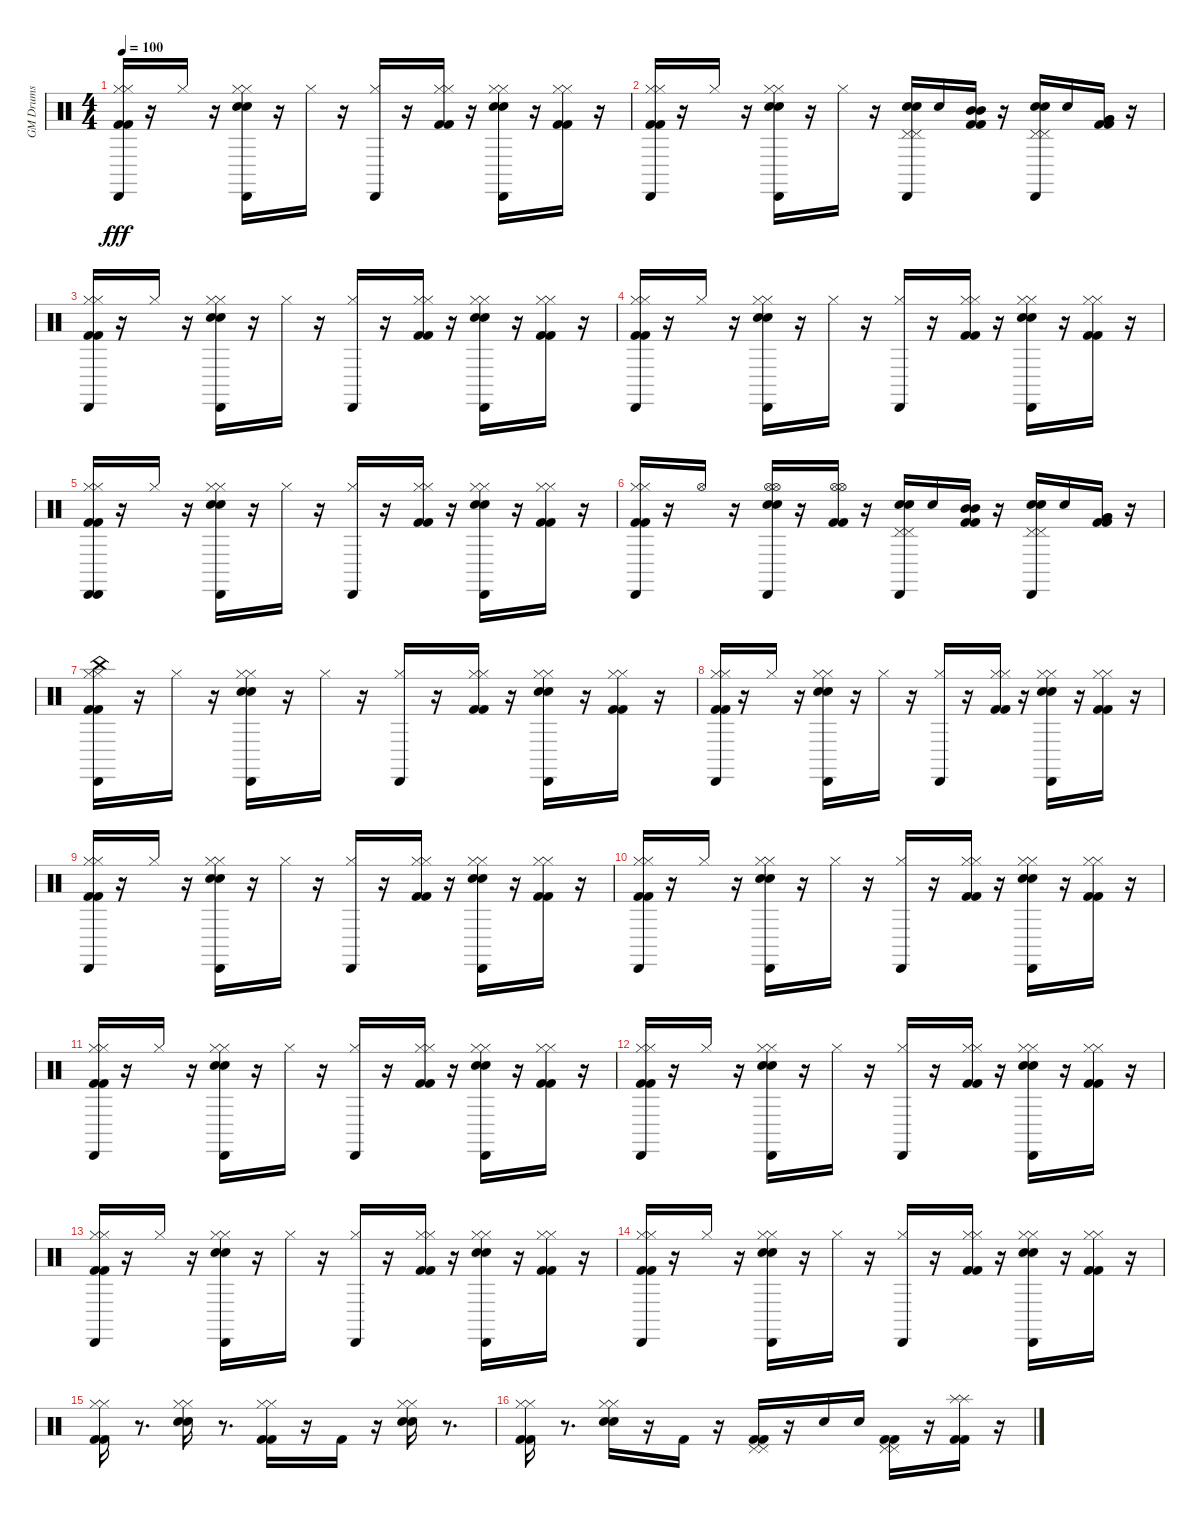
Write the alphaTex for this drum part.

\track ("GM Drums" "GM Drums") {instrument percussion}
\staff {score}
\articulation defaults
\ts (4 4)
\tempo 100
\clef neutral
\ks c
("Kick (hit) 2" "Kick (hit) 2" "Hi-Hat (closed)" "Hi-Hat (closed)" "Cabasa (hit)").16{dy fff} r.16 "Hi-Hat (closed)".16 r.16 ("Snare (hit) 2" "Snare (hit) 2" "Hi-Hat (closed)" "Hi-Hat (closed)" "Cabasa (hit)").16 r.16 "Hi-Hat (closed)".16 r.16 ("Hi-Hat (closed)" "Cabasa (hit)").16 r.16 ("Kick (hit) 2" "Kick (hit) 2" "Hi-Hat (closed)" "Hi-Hat (closed)").16 r.16 ("Snare (hit) 2" "Snare (hit) 2" "Hi-Hat (closed)" "Hi-Hat (closed)" "Cabasa (hit)").16 r.16 ("Kick (hit) 2" "Kick (hit) 2" "Hi-Hat (closed)" "Hi-Hat (closed)").16 r.16 |
("Kick (hit) 2" "Kick (hit) 2" "Hi-Hat (closed)" "Hi-Hat (closed)" "Cabasa (hit)").16 r.16 "Hi-Hat (closed)".16 r.16 ("Snare (hit) 2" "Snare (hit) 2" "Hi-Hat (closed)" "Hi-Hat (closed)" "Cabasa (hit)").16 r.16 "Hi-Hat (closed)".16 r.16 ("Snare (hit) 2" "Snare (hit) 2" "Pedal Hi-Hat (hit)" "Pedal Hi-Hat (hit)" "Cabasa (hit)").16 "Snare (hit) 2".16 ("Kick (hit) 2" "Kick (hit) 2" "Mid Tom (hit)" "Mid Tom (hit)").16 r.16 ("Snare (hit) 2" "Snare (hit) 2" "Pedal Hi-Hat (hit)" "Pedal Hi-Hat (hit)" "Cabasa (hit)").16 "Snare (hit) 2".16 ("Kick (hit) 2" "Kick (hit) 2" "Very Low Tom (hit)" "Very Low Tom (hit)").16 r.16 |
("Kick (hit) 2" "Kick (hit) 2" "Hi-Hat (closed)" "Hi-Hat (closed)" "Cabasa (hit)").16 r.16 "Hi-Hat (closed)".16 r.16 ("Snare (hit) 2" "Snare (hit) 2" "Hi-Hat (closed)" "Hi-Hat (closed)" "Cabasa (hit)").16 r.16 "Hi-Hat (closed)".16 r.16 ("Hi-Hat (closed)" "Cabasa (hit)").16 r.16 ("Kick (hit) 2" "Kick (hit) 2" "Hi-Hat (closed)" "Hi-Hat (closed)").16 r.16 ("Snare (hit) 2" "Snare (hit) 2" "Hi-Hat (closed)" "Hi-Hat (closed)" "Cabasa (hit)").16 r.16 ("Kick (hit) 2" "Kick (hit) 2" "Hi-Hat (closed)" "Hi-Hat (closed)").16 r.16 |
("Kick (hit) 2" "Kick (hit) 2" "Hi-Hat (closed)" "Hi-Hat (closed)" "Cabasa (hit)").16 r.16 "Hi-Hat (closed)".16 r.16 ("Snare (hit) 2" "Snare (hit) 2" "Hi-Hat (closed)" "Hi-Hat (closed)" "Cabasa (hit)").16 r.16 "Hi-Hat (closed)".16 r.16 ("Hi-Hat (closed)" "Cabasa (hit)").16 r.16 ("Kick (hit) 2" "Kick (hit) 2" "Hi-Hat (closed)" "Hi-Hat (closed)").16 r.16 ("Snare (hit) 2" "Snare (hit) 2" "Hi-Hat (closed)" "Hi-Hat (closed)" "Cabasa (hit)").16 r.16 ("Kick (hit) 2" "Kick (hit) 2" "Hi-Hat (closed)" "Hi-Hat (closed)").16 r.16 |
("Kick (hit) 2" "Kick (hit) 2" "Hi-Hat (closed)" "Hi-Hat (closed)" "Cabasa (hit)" "Cabasa (hit)").16 r.16 "Hi-Hat (closed)".16 r.16 ("Snare (hit) 2" "Snare (hit) 2" "Hi-Hat (closed)" "Hi-Hat (closed)" "Cabasa (hit)").16 r.16 "Hi-Hat (closed)".16 r.16 ("Hi-Hat (closed)" "Cabasa (hit)").16 r.16 ("Kick (hit) 2" "Kick (hit) 2" "Hi-Hat (closed)" "Hi-Hat (closed)").16 r.16 ("Snare (hit) 2" "Snare (hit) 2" "Hi-Hat (closed)" "Hi-Hat (closed)" "Cabasa (hit)").16 r.16 ("Kick (hit) 2" "Kick (hit) 2" "Hi-Hat (closed)" "Hi-Hat (closed)").16 r.16 |
("Kick (hit) 2" "Kick (hit) 2" "Hi-Hat (closed)" "Hi-Hat (closed)" "Cabasa (hit)").16 r.16 "Hi-Hat (open)".16 r.16 ("Snare (hit) 2" "Snare (hit) 2" "Hi-Hat (open)" "Hi-Hat (open)" "Cabasa (hit)").16 r.16 ("Kick (hit) 2" "Kick (hit) 2" "Hi-Hat (open)" "Hi-Hat (open)").16 r.16 ("Snare (hit) 2" "Snare (hit) 2" "Pedal Hi-Hat (hit)" "Pedal Hi-Hat (hit)" "Cabasa (hit)").16 "Snare (hit) 2".16 ("Kick (hit) 2" "Kick (hit) 2" "Mid Tom (hit)" "Mid Tom (hit)").16 r.16 ("Snare (hit) 2" "Snare (hit) 2" "Pedal Hi-Hat (hit)" "Pedal Hi-Hat (hit)" "Cabasa (hit)").16 "Snare (hit) 2".16 ("Kick (hit) 2" "Kick (hit) 2" "Very Low Tom (hit)" "Very Low Tom (hit)").16 r.16 |
("Kick (hit) 2" "Kick (hit) 2" "Hi-Hat (closed)" "Hi-Hat (closed)" "China (hit)" "Cabasa (hit)").16 r.16 "Hi-Hat (closed)".16 r.16 ("Snare (hit) 2" "Snare (hit) 2" "Hi-Hat (closed)" "Hi-Hat (closed)" "Cabasa (hit)").16 r.16 "Hi-Hat (closed)".16 r.16 ("Hi-Hat (closed)" "Cabasa (hit)").16 r.16 ("Kick (hit) 2" "Kick (hit) 2" "Hi-Hat (closed)" "Hi-Hat (closed)").16 r.16 ("Snare (hit) 2" "Snare (hit) 2" "Hi-Hat (closed)" "Hi-Hat (closed)" "Cabasa (hit)").16 r.16 ("Kick (hit) 2" "Kick (hit) 2" "Hi-Hat (closed)" "Hi-Hat (closed)").16 r.16 |
("Kick (hit) 2" "Kick (hit) 2" "Hi-Hat (closed)" "Hi-Hat (closed)" "Cabasa (hit)").16 r.16 "Hi-Hat (closed)".16 r.16 ("Snare (hit) 2" "Snare (hit) 2" "Hi-Hat (closed)" "Hi-Hat (closed)" "Cabasa (hit)").16 r.16 "Hi-Hat (closed)".16 r.16 ("Hi-Hat (closed)" "Cabasa (hit)").16 r.16 ("Kick (hit) 2" "Kick (hit) 2" "Hi-Hat (closed)" "Hi-Hat (closed)").16 r.16 ("Snare (hit) 2" "Snare (hit) 2" "Hi-Hat (closed)" "Hi-Hat (closed)" "Cabasa (hit)").16 r.16 ("Kick (hit) 2" "Kick (hit) 2" "Hi-Hat (closed)" "Hi-Hat (closed)").16 r.16 |
("Kick (hit) 2" "Kick (hit) 2" "Hi-Hat (closed)" "Hi-Hat (closed)" "Cabasa (hit)").16 r.16 "Hi-Hat (closed)".16 r.16 ("Snare (hit) 2" "Snare (hit) 2" "Hi-Hat (closed)" "Hi-Hat (closed)" "Cabasa (hit)").16 r.16 "Hi-Hat (closed)".16 r.16 ("Hi-Hat (closed)" "Cabasa (hit)").16 r.16 ("Kick (hit) 2" "Kick (hit) 2" "Hi-Hat (closed)" "Hi-Hat (closed)").16 r.16 ("Snare (hit) 2" "Snare (hit) 2" "Hi-Hat (closed)" "Hi-Hat (closed)" "Cabasa (hit)").16 r.16 ("Kick (hit) 2" "Kick (hit) 2" "Hi-Hat (closed)" "Hi-Hat (closed)").16 r.16 |
("Kick (hit) 2" "Kick (hit) 2" "Hi-Hat (closed)" "Hi-Hat (closed)" "Cabasa (hit)").16 r.16 "Hi-Hat (closed)".16 r.16 ("Snare (hit) 2" "Snare (hit) 2" "Hi-Hat (closed)" "Hi-Hat (closed)" "Cabasa (hit)").16 r.16 "Hi-Hat (closed)".16 r.16 ("Hi-Hat (closed)" "Cabasa (hit)").16 r.16 ("Kick (hit) 2" "Kick (hit) 2" "Hi-Hat (closed)" "Hi-Hat (closed)").16 r.16 ("Snare (hit) 2" "Snare (hit) 2" "Hi-Hat (closed)" "Hi-Hat (closed)" "Cabasa (hit)").16 r.16 ("Kick (hit) 2" "Kick (hit) 2" "Hi-Hat (closed)" "Hi-Hat (closed)").16 r.16 |
("Kick (hit) 2" "Kick (hit) 2" "Hi-Hat (closed)" "Hi-Hat (closed)" "Cabasa (hit)").16 r.16 "Hi-Hat (closed)".16 r.16 ("Snare (hit) 2" "Snare (hit) 2" "Hi-Hat (closed)" "Hi-Hat (closed)" "Cabasa (hit)").16 r.16 "Hi-Hat (closed)".16 r.16 ("Hi-Hat (closed)" "Cabasa (hit)").16 r.16 ("Kick (hit) 2" "Kick (hit) 2" "Hi-Hat (closed)" "Hi-Hat (closed)").16 r.16 ("Snare (hit) 2" "Snare (hit) 2" "Hi-Hat (closed)" "Hi-Hat (closed)" "Cabasa (hit)").16 r.16 ("Kick (hit) 2" "Kick (hit) 2" "Hi-Hat (closed)" "Hi-Hat (closed)").16 r.16 |
("Kick (hit) 2" "Kick (hit) 2" "Hi-Hat (closed)" "Hi-Hat (closed)" "Cabasa (hit)").16 r.16 "Hi-Hat (closed)".16 r.16 ("Snare (hit) 2" "Snare (hit) 2" "Hi-Hat (closed)" "Hi-Hat (closed)" "Cabasa (hit)").16 r.16 "Hi-Hat (closed)".16 r.16 ("Hi-Hat (closed)" "Cabasa (hit)").16 r.16 ("Kick (hit) 2" "Kick (hit) 2" "Hi-Hat (closed)" "Hi-Hat (closed)").16 r.16 ("Snare (hit) 2" "Snare (hit) 2" "Hi-Hat (closed)" "Hi-Hat (closed)" "Cabasa (hit)").16 r.16 ("Kick (hit) 2" "Kick (hit) 2" "Hi-Hat (closed)" "Hi-Hat (closed)").16 r.16 |
("Kick (hit) 2" "Kick (hit) 2" "Hi-Hat (closed)" "Hi-Hat (closed)" "Cabasa (hit)").16 r.16 "Hi-Hat (closed)".16 r.16 ("Snare (hit) 2" "Snare (hit) 2" "Hi-Hat (closed)" "Hi-Hat (closed)" "Cabasa (hit)").16 r.16 "Hi-Hat (closed)".16 r.16 ("Hi-Hat (closed)" "Cabasa (hit)").16 r.16 ("Kick (hit) 2" "Kick (hit) 2" "Hi-Hat (closed)" "Hi-Hat (closed)").16 r.16 ("Snare (hit) 2" "Snare (hit) 2" "Hi-Hat (closed)" "Hi-Hat (closed)" "Cabasa (hit)").16 r.16 ("Kick (hit) 2" "Kick (hit) 2" "Hi-Hat (closed)" "Hi-Hat (closed)").16 r.16 |
("Kick (hit) 2" "Kick (hit) 2" "Hi-Hat (closed)" "Hi-Hat (closed)" "Cabasa (hit)").16 r.16 "Hi-Hat (closed)".16 r.16 ("Snare (hit) 2" "Snare (hit) 2" "Hi-Hat (closed)" "Hi-Hat (closed)" "Cabasa (hit)").16 r.16 "Hi-Hat (closed)".16 r.16 ("Hi-Hat (closed)" "Cabasa (hit)").16 r.16 ("Kick (hit) 2" "Kick (hit) 2" "Hi-Hat (closed)" "Hi-Hat (closed)").16 r.16 ("Snare (hit) 2" "Snare (hit) 2" "Hi-Hat (closed)" "Hi-Hat (closed)" "Cabasa (hit)").16 r.16 ("Kick (hit) 2" "Kick (hit) 2" "Hi-Hat (closed)" "Hi-Hat (closed)").16 r.16 |
("Kick (hit) 2" "Kick (hit) 2" "Hi-Hat (closed)" "Hi-Hat (closed)").16 r.8{d} ("Snare (hit) 2" "Snare (hit) 2" "Hi-Hat (closed)" "Hi-Hat (closed)").16 r.8{d} ("Kick (hit) 2" "Kick (hit) 2" "Hi-Hat (closed)" "Hi-Hat (closed)").16 r.16 "Kick (hit) 2".16 r.16 ("Snare (hit) 2" "Snare (hit) 2" "Hi-Hat (closed)" "Hi-Hat (closed)").16 r.8{d} |
("Kick (hit) 2" "Kick (hit) 2" "Hi-Hat (closed)" "Hi-Hat (closed)").16 r.8{d} ("Snare (hit) 2" "Snare (hit) 2" "Hi-Hat (closed)" "Hi-Hat (closed)").16 r.16 "Kick (hit) 2".16 r.16 ("Kick (hit) 2" "Kick (hit) 2" "Pedal Hi-Hat (hit)" "Pedal Hi-Hat (hit)").16 r.16 "Snare (hit) 2".16 "Snare (hit) 2".16 ("Kick (hit) 2" "Kick (hit) 2" "Pedal Hi-Hat (hit)" "Pedal Hi-Hat (hit)").16 r.16 ("Kick (hit) 2" "Kick (hit) 2" "Splash (hit)" "Splash (hit)").16 r.16
